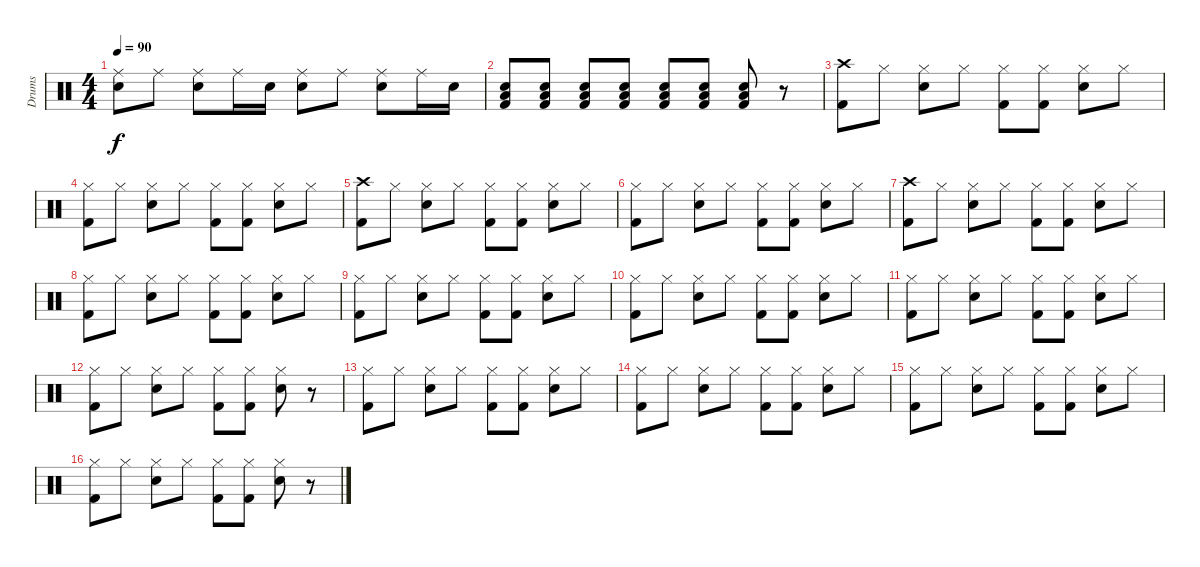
\track ("Drums" "Drums") {instrument percussion}
\staff {score}
\articulation defaults
\ts (4 4)
\tempo 90
\clef neutral
\ks c
("Ride (middle)" "Snare (hit) 2").8{dy f} "Ride (middle)".8 ("Ride (middle)" "Snare (hit) 2").8 "Ride (middle)".16 "Snare (hit) 2".16 ("Ride (middle)" "Snare (hit) 2").8 "Ride (middle)".8 ("Ride (middle)" "Snare (hit) 2").8 "Ride (middle)".16 "Snare (hit) 2".16 |
("Snare (hit) 2" "Low Tom (hit)" "Kick (hit) 2").8{volume 8} ("Snare (hit) 2" "Low Tom (hit)" "Kick (hit) 2").8{volume 9} ("Snare (hit) 2" "Low Tom (hit)" "Kick (hit) 2").8{volume 11} ("Snare (hit) 2" "Low Tom (hit)" "Kick (hit) 2").8{volume 13} ("Snare (hit) 2" "Low Tom (hit)" "Kick (hit) 2").8{volume 15} ("Snare (hit) 2" "Low Tom (hit)" "Kick (hit) 2").8{volume 16} ("Snare (hit) 2" "Low Tom (hit)" "Kick (hit) 2").8 r.8 |
("Crash high (hit)" "Kick (hit) 2").8 "Hi-Hat (closed)".8 ("Hi-Hat (closed)" "Snare (hit) 2").8 "Hi-Hat (closed)".8 ("Hi-Hat (closed)" "Kick (hit) 2").8 ("Hi-Hat (closed)" "Kick (hit) 2").8 ("Hi-Hat (closed)" "Snare (hit) 2").8 "Hi-Hat (closed)".8 |
("Hi-Hat (closed)" "Kick (hit) 2").8 "Hi-Hat (closed)".8 ("Hi-Hat (closed)" "Snare (hit) 2").8 "Hi-Hat (closed)".8 ("Hi-Hat (closed)" "Kick (hit) 2").8 ("Hi-Hat (closed)" "Kick (hit) 2").8 ("Hi-Hat (closed)" "Snare (hit) 2").8 "Hi-Hat (closed)".8 |
("Crash high (hit)" "Kick (hit) 2").8 "Hi-Hat (closed)".8 ("Hi-Hat (closed)" "Snare (hit) 2").8 "Hi-Hat (closed)".8 ("Hi-Hat (closed)" "Kick (hit) 2").8 ("Hi-Hat (closed)" "Kick (hit) 2").8 ("Hi-Hat (closed)" "Snare (hit) 2").8 "Hi-Hat (closed)".8 |
("Hi-Hat (closed)" "Kick (hit) 2").8 "Hi-Hat (closed)".8 ("Hi-Hat (closed)" "Snare (hit) 2").8 "Hi-Hat (closed)".8 ("Hi-Hat (closed)" "Kick (hit) 2").8 ("Hi-Hat (closed)" "Kick (hit) 2").8 ("Hi-Hat (closed)" "Snare (hit) 2").8 "Hi-Hat (closed)".8 |
("Crash high (hit)" "Kick (hit) 2").8 "Hi-Hat (closed)".8 ("Hi-Hat (closed)" "Snare (hit) 2").8 "Hi-Hat (closed)".8 ("Hi-Hat (closed)" "Kick (hit) 2").8 ("Hi-Hat (closed)" "Kick (hit) 2").8 ("Hi-Hat (closed)" "Snare (hit) 2").8 "Hi-Hat (closed)".8 |
("Hi-Hat (closed)" "Kick (hit) 2").8 "Hi-Hat (closed)".8 ("Hi-Hat (closed)" "Snare (hit) 2").8 "Hi-Hat (closed)".8 ("Hi-Hat (closed)" "Kick (hit) 2").8 ("Hi-Hat (closed)" "Kick (hit) 2").8 ("Hi-Hat (closed)" "Snare (hit) 2").8 "Hi-Hat (closed)".8 |
("Hi-Hat (closed)" "Kick (hit) 2").8 "Hi-Hat (closed)".8 ("Hi-Hat (closed)" "Snare (hit) 2").8 "Hi-Hat (closed)".8 ("Hi-Hat (closed)" "Kick (hit) 2").8 ("Hi-Hat (closed)" "Kick (hit) 2").8 ("Hi-Hat (closed)" "Snare (hit) 2").8 "Hi-Hat (closed)".8 |
("Hi-Hat (closed)" "Kick (hit) 2").8 "Hi-Hat (closed)".8 ("Hi-Hat (closed)" "Snare (hit) 2").8 "Hi-Hat (closed)".8 ("Hi-Hat (closed)" "Kick (hit) 2").8 ("Hi-Hat (closed)" "Kick (hit) 2").8 ("Hi-Hat (closed)" "Snare (hit) 2").8 "Hi-Hat (closed)".8 |
("Hi-Hat (closed)" "Kick (hit) 2").8 "Hi-Hat (closed)".8 ("Hi-Hat (closed)" "Snare (hit) 2").8 "Hi-Hat (closed)".8 ("Hi-Hat (closed)" "Kick (hit) 2").8 ("Hi-Hat (closed)" "Kick (hit) 2").8 ("Hi-Hat (closed)" "Snare (hit) 2").8 "Hi-Hat (closed)".8 |
("Hi-Hat (closed)" "Kick (hit) 2").8 "Hi-Hat (closed)".8 ("Hi-Hat (closed)" "Snare (hit) 2").8 "Hi-Hat (closed)".8 ("Hi-Hat (closed)" "Kick (hit) 2").8 ("Hi-Hat (closed)" "Kick (hit) 2").8 ("Hi-Hat (closed)" "Snare (hit) 2").8 r.8 |
("Hi-Hat (closed)" "Kick (hit) 2").8 "Hi-Hat (closed)".8 ("Hi-Hat (closed)" "Snare (hit) 2").8 "Hi-Hat (closed)".8 ("Hi-Hat (closed)" "Kick (hit) 2").8 ("Hi-Hat (closed)" "Kick (hit) 2").8 ("Hi-Hat (closed)" "Snare (hit) 2").8 "Hi-Hat (closed)".8 |
("Hi-Hat (closed)" "Kick (hit) 2").8 "Hi-Hat (closed)".8 ("Hi-Hat (closed)" "Snare (hit) 2").8 "Hi-Hat (closed)".8 ("Hi-Hat (closed)" "Kick (hit) 2").8 ("Hi-Hat (closed)" "Kick (hit) 2").8 ("Hi-Hat (closed)" "Snare (hit) 2").8 "Hi-Hat (closed)".8 |
("Hi-Hat (closed)" "Kick (hit) 2").8 "Hi-Hat (closed)".8 ("Hi-Hat (closed)" "Snare (hit) 2").8 "Hi-Hat (closed)".8 ("Hi-Hat (closed)" "Kick (hit) 2").8 ("Hi-Hat (closed)" "Kick (hit) 2").8 ("Hi-Hat (closed)" "Snare (hit) 2").8 "Hi-Hat (closed)".8 |
("Hi-Hat (closed)" "Kick (hit) 2").8 "Hi-Hat (closed)".8 ("Hi-Hat (closed)" "Snare (hit) 2").8 "Hi-Hat (closed)".8 ("Hi-Hat (closed)" "Kick (hit) 2").8 ("Hi-Hat (closed)" "Kick (hit) 2").8 ("Hi-Hat (closed)" "Snare (hit) 2").8 r.8
